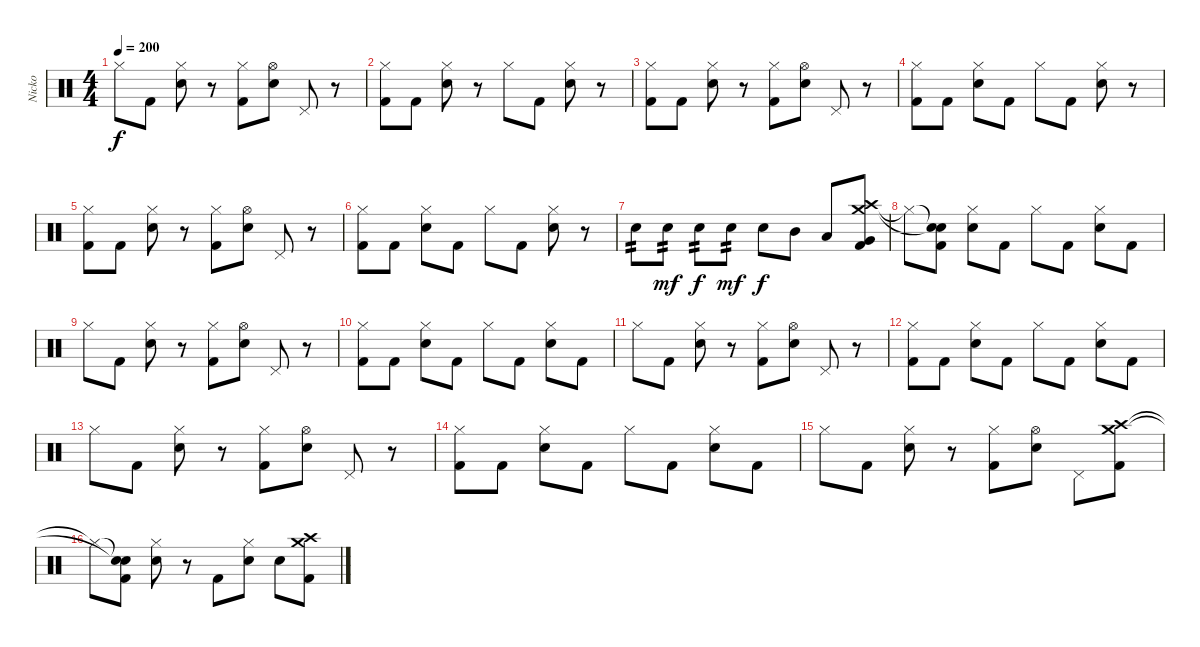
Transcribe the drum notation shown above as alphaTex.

\track ("Nicko" "Nicko") {instrument percussion}
\staff {score}
\articulation defaults
\ts (4 4)
\tempo 200
\clef neutral
\ks c "Hi-Hat (closed)".8{dy f} "Kick (hit) 2".8
("Hi-Hat (closed)" "Electric Snare (hit)").8 r.8 ("Hi-Hat (closed)" "Kick (hit) 2").8 ("Hi-Hat (open)" "Electric Snare (hit)").8 "Pedal Hi-Hat (hit)".8 r.8 |
("Hi-Hat (closed)" "Kick (hit) 2").8 "Kick (hit) 2".8 ("Hi-Hat (closed)" "Electric Snare (hit)").8 r.8 "Hi-Hat (closed)".8 "Kick (hit) 2".8 ("Hi-Hat (closed)" "Electric Snare (hit)").8 r.8 |
("Hi-Hat (closed)" "Kick (hit) 2").8 "Kick (hit) 2".8 ("Hi-Hat (closed)" "Electric Snare (hit)").8 r.8 ("Hi-Hat (closed)" "Kick (hit) 2").8 ("Hi-Hat (open)" "Electric Snare (hit)").8 "Pedal Hi-Hat (hit)".8 r.8 |
("Hi-Hat (closed)" "Kick (hit) 2").8 "Kick (hit) 2".8 ("Hi-Hat (closed)" "Electric Snare (hit)").8 "Kick (hit) 2".8 "Hi-Hat (closed)".8 "Kick (hit) 2".8 ("Hi-Hat (closed)" "Electric Snare (hit)").8 r.8 |
("Hi-Hat (closed)" "Kick (hit) 2").8 "Kick (hit) 2".8 ("Hi-Hat (closed)" "Electric Snare (hit)").8 r.8 ("Hi-Hat (closed)" "Kick (hit) 2").8 ("Hi-Hat (open)" "Electric Snare (hit)").8 "Pedal Hi-Hat (hit)".8 r.8 |
("Hi-Hat (closed)" "Kick (hit) 2").8 "Kick (hit) 2".8 ("Hi-Hat (closed)" "Electric Snare (hit)").8 "Kick (hit) 2".8 "Hi-Hat (closed)".8 "Kick (hit) 2".8 ("Hi-Hat (closed)" "Electric Snare (hit)").8 r.8 |
"Electric Snare (hit)".8{tp 2} "Electric Snare (hit)".8{tp 2 dy mf} "Electric Snare (hit)".8{tp 2 dy f} "Electric Snare (hit)".8{tp 2 dy mf} "Electric Snare (hit)".8{dy f} "Mid Tom (hit)".8 "Low Tom (hit)".8 ("Crash high (hit)" "Crash medium (hit)" "Very Low Tom (hit)" "Kick (hit) 2").8 |
"Hi-Hat (closed)"{t}.8 ("Snare (hit)"{t} "Snare (hit)"{t} "Kick (hit) 2").8 ("Hi-Hat (closed)" "Electric Snare (hit)").8 "Kick (hit) 2".8 "Hi-Hat (closed)".8 "Kick (hit) 2".8 ("Hi-Hat (closed)" "Electric Snare (hit)").8 "Kick (hit) 2".8 |
"Hi-Hat (closed)".8 "Kick (hit) 2".8 ("Hi-Hat (closed)" "Electric Snare (hit)").8 r.8 ("Hi-Hat (closed)" "Kick (hit) 2").8 ("Hi-Hat (open)" "Electric Snare (hit)").8 "Pedal Hi-Hat (hit)".8 r.8 |
("Hi-Hat (closed)" "Kick (hit) 2").8 "Kick (hit) 2".8 ("Hi-Hat (closed)" "Electric Snare (hit)").8 "Kick (hit) 2".8 "Hi-Hat (closed)".8 "Kick (hit) 2".8 ("Hi-Hat (closed)" "Electric Snare (hit)").8 "Kick (hit) 2".8 |
"Hi-Hat (closed)".8 "Kick (hit) 2".8 ("Hi-Hat (closed)" "Electric Snare (hit)").8 r.8 ("Hi-Hat (closed)" "Kick (hit) 2").8 ("Hi-Hat (open)" "Electric Snare (hit)").8 "Pedal Hi-Hat (hit)".8 r.8 |
("Hi-Hat (closed)" "Kick (hit) 2").8 "Kick (hit) 2".8 ("Hi-Hat (closed)" "Electric Snare (hit)").8 "Kick (hit) 2".8 "Hi-Hat (closed)".8 "Kick (hit) 2".8 ("Hi-Hat (closed)" "Electric Snare (hit)").8 "Kick (hit) 2".8 |
"Hi-Hat (closed)".8 "Kick (hit) 2".8 ("Hi-Hat (closed)" "Electric Snare (hit)").8 r.8 ("Hi-Hat (closed)" "Kick (hit) 2").8 ("Hi-Hat (open)" "Electric Snare (hit)").8 "Pedal Hi-Hat (hit)".8 r.8 |
("Hi-Hat (closed)" "Kick (hit) 2").8 "Kick (hit) 2".8 ("Hi-Hat (closed)" "Electric Snare (hit)").8 "Kick (hit) 2".8 "Hi-Hat (closed)".8 "Kick (hit) 2".8 ("Hi-Hat (closed)" "Electric Snare (hit)").8 "Kick (hit) 2".8 |
"Hi-Hat (closed)".8 "Kick (hit) 2".8 ("Hi-Hat (closed)" "Electric Snare (hit)").8 r.8 ("Hi-Hat (closed)" "Kick (hit) 2").8 ("Hi-Hat (open)" "Electric Snare (hit)").8 "Pedal Hi-Hat (hit)".8 ("Crash high (hit)" "Crash medium (hit)" "Kick (hit) 2").8 |
"Hi-Hat (closed)"{t}.8 ("Snare (hit)"{t} "Snare (hit)"{t} "Kick (hit) 2").8 ("Hi-Hat (closed)" "Electric Snare (hit)").8 r.8 "Kick (hit) 2".8 ("Hi-Hat (closed)" "Electric Snare (hit)").8 "Electric Snare (hit)".8 ("Crash medium (hit)" "Crash high (hit)" "Kick (hit) 2").8
